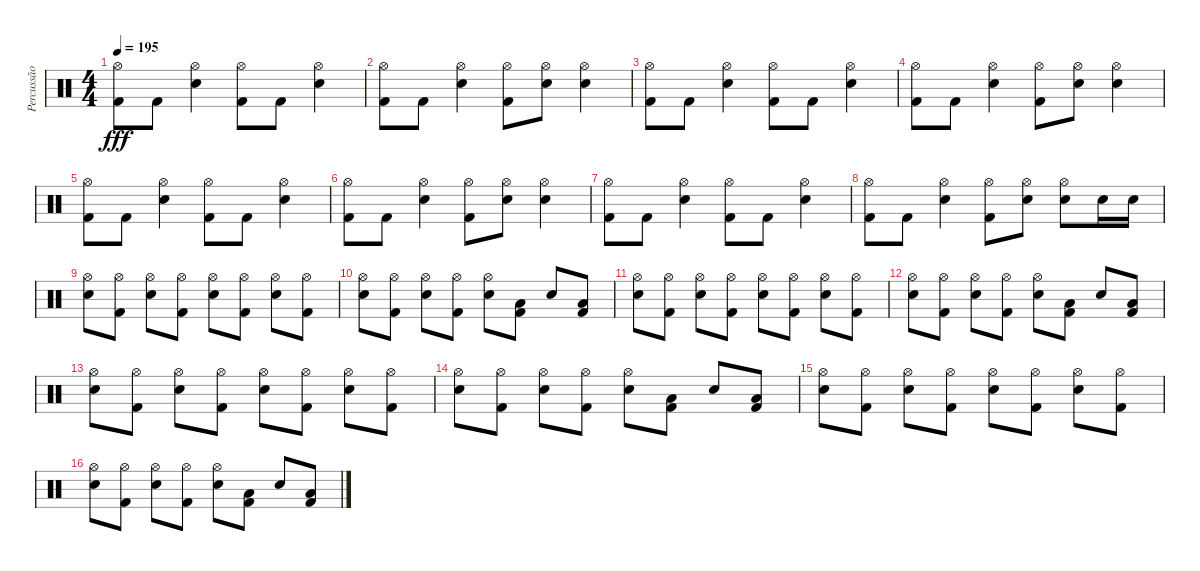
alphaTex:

\track ("Percussão" "Percussão") {instrument percussion}
\staff {score}
\articulation defaults
\ts (4 4)
\tempo 195
\clef neutral
\ks c
("Hi-Hat (open)" "Kick (hit) 2").8{dy fff} "Kick (hit) 2".8 ("Hi-Hat (open)" "Electric Snare (hit)").4 ("Hi-Hat (open)" "Kick (hit) 2").8 "Kick (hit) 2".8 ("Hi-Hat (open)" "Electric Snare (hit)").4 |
("Hi-Hat (open)" "Kick (hit) 2").8 "Kick (hit) 2".8 ("Hi-Hat (open)" "Electric Snare (hit)").4 ("Hi-Hat (open)" "Kick (hit) 2").8 ("Hi-Hat (open)" "Electric Snare (hit)").8 ("Hi-Hat (open)" "Electric Snare (hit)").4 |
("Hi-Hat (open)" "Kick (hit) 2").8 "Kick (hit) 2".8 ("Hi-Hat (open)" "Electric Snare (hit)").4 ("Hi-Hat (open)" "Kick (hit) 2").8 "Kick (hit) 2".8 ("Hi-Hat (open)" "Electric Snare (hit)").4 |
("Hi-Hat (open)" "Kick (hit) 2").8 "Kick (hit) 2".8 ("Hi-Hat (open)" "Electric Snare (hit)").4 ("Hi-Hat (open)" "Kick (hit) 2").8 ("Hi-Hat (open)" "Electric Snare (hit)").8 ("Hi-Hat (open)" "Electric Snare (hit)").4 |
("Hi-Hat (open)" "Kick (hit) 2").8 "Kick (hit) 2".8 ("Hi-Hat (open)" "Electric Snare (hit)").4 ("Hi-Hat (open)" "Kick (hit) 2").8 "Kick (hit) 2".8 ("Hi-Hat (open)" "Electric Snare (hit)").4 |
("Hi-Hat (open)" "Kick (hit) 2").8 "Kick (hit) 2".8 ("Hi-Hat (open)" "Electric Snare (hit)").4 ("Hi-Hat (open)" "Kick (hit) 2").8 ("Hi-Hat (open)" "Electric Snare (hit)").8 ("Hi-Hat (open)" "Electric Snare (hit)").4 |
("Hi-Hat (open)" "Kick (hit) 2").8 "Kick (hit) 2".8 ("Hi-Hat (open)" "Electric Snare (hit)").4 ("Hi-Hat (open)" "Kick (hit) 2").8 "Kick (hit) 2".8 ("Hi-Hat (open)" "Electric Snare (hit)").4 |
("Hi-Hat (open)" "Kick (hit) 2").8 "Kick (hit) 2".8 ("Hi-Hat (open)" "Electric Snare (hit)").4 ("Hi-Hat (open)" "Kick (hit) 2").8 ("Hi-Hat (open)" "Electric Snare (hit)").8 ("Hi-Hat (open)" "Electric Snare (hit)").8 "Electric Snare (hit)".16 "Electric Snare (hit)".16 |
("Hi-Hat (open)" "Electric Snare (hit)").8 ("Hi-Hat (open)" "Kick (hit) 2").8 ("Hi-Hat (open)" "Electric Snare (hit)").8 ("Hi-Hat (open)" "Kick (hit) 2").8 ("Hi-Hat (open)" "Electric Snare (hit)").8 ("Hi-Hat (open)" "Kick (hit) 2").8 ("Hi-Hat (open)" "Electric Snare (hit)").8 ("Hi-Hat (open)" "Kick (hit) 2").8 |
("Hi-Hat (open)" "Electric Snare (hit)").8 ("Hi-Hat (open)" "Kick (hit) 2").8 ("Hi-Hat (open)" "Electric Snare (hit)").8 ("Hi-Hat (open)" "Kick (hit) 2").8 ("Hi-Hat (open)" "Electric Snare (hit)").8 ("Low Floor Tom (hit)" "Kick (hit) 2").8 "Electric Snare (hit)".8 ("Low Floor Tom (hit)" "Kick (hit) 2").8 |
("Hi-Hat (open)" "Electric Snare (hit)").8 ("Hi-Hat (open)" "Kick (hit) 2").8 ("Hi-Hat (open)" "Electric Snare (hit)").8 ("Hi-Hat (open)" "Kick (hit) 2").8 ("Hi-Hat (open)" "Electric Snare (hit)").8 ("Hi-Hat (open)" "Kick (hit) 2").8 ("Hi-Hat (open)" "Electric Snare (hit)").8 ("Hi-Hat (open)" "Kick (hit) 2").8 |
("Hi-Hat (open)" "Electric Snare (hit)").8 ("Hi-Hat (open)" "Kick (hit) 2").8 ("Hi-Hat (open)" "Electric Snare (hit)").8 ("Hi-Hat (open)" "Kick (hit) 2").8 ("Hi-Hat (open)" "Electric Snare (hit)").8 ("Low Floor Tom (hit)" "Kick (hit) 2").8 "Electric Snare (hit)".8 ("Low Floor Tom (hit)" "Kick (hit) 2").8 |
("Hi-Hat (open)" "Electric Snare (hit)").8 ("Hi-Hat (open)" "Kick (hit) 2").8 ("Hi-Hat (open)" "Electric Snare (hit)").8 ("Hi-Hat (open)" "Kick (hit) 2").8 ("Hi-Hat (open)" "Electric Snare (hit)").8 ("Hi-Hat (open)" "Kick (hit) 2").8 ("Hi-Hat (open)" "Electric Snare (hit)").8 ("Hi-Hat (open)" "Kick (hit) 2").8 |
("Hi-Hat (open)" "Electric Snare (hit)").8 ("Hi-Hat (open)" "Kick (hit) 2").8 ("Hi-Hat (open)" "Electric Snare (hit)").8 ("Hi-Hat (open)" "Kick (hit) 2").8 ("Hi-Hat (open)" "Electric Snare (hit)").8 ("Low Floor Tom (hit)" "Kick (hit) 2").8 "Electric Snare (hit)".8 ("Low Floor Tom (hit)" "Kick (hit) 2").8 |
("Hi-Hat (open)" "Electric Snare (hit)").8 ("Hi-Hat (open)" "Kick (hit) 2").8 ("Hi-Hat (open)" "Electric Snare (hit)").8 ("Hi-Hat (open)" "Kick (hit) 2").8 ("Hi-Hat (open)" "Electric Snare (hit)").8 ("Hi-Hat (open)" "Kick (hit) 2").8 ("Hi-Hat (open)" "Electric Snare (hit)").8 ("Hi-Hat (open)" "Kick (hit) 2").8 |
("Hi-Hat (open)" "Electric Snare (hit)").8 ("Hi-Hat (open)" "Kick (hit) 2").8 ("Hi-Hat (open)" "Electric Snare (hit)").8 ("Hi-Hat (open)" "Kick (hit) 2").8 ("Hi-Hat (open)" "Electric Snare (hit)").8 ("Low Floor Tom (hit)" "Kick (hit) 2").8 "Electric Snare (hit)".8 ("Low Floor Tom (hit)" "Kick (hit) 2").8
